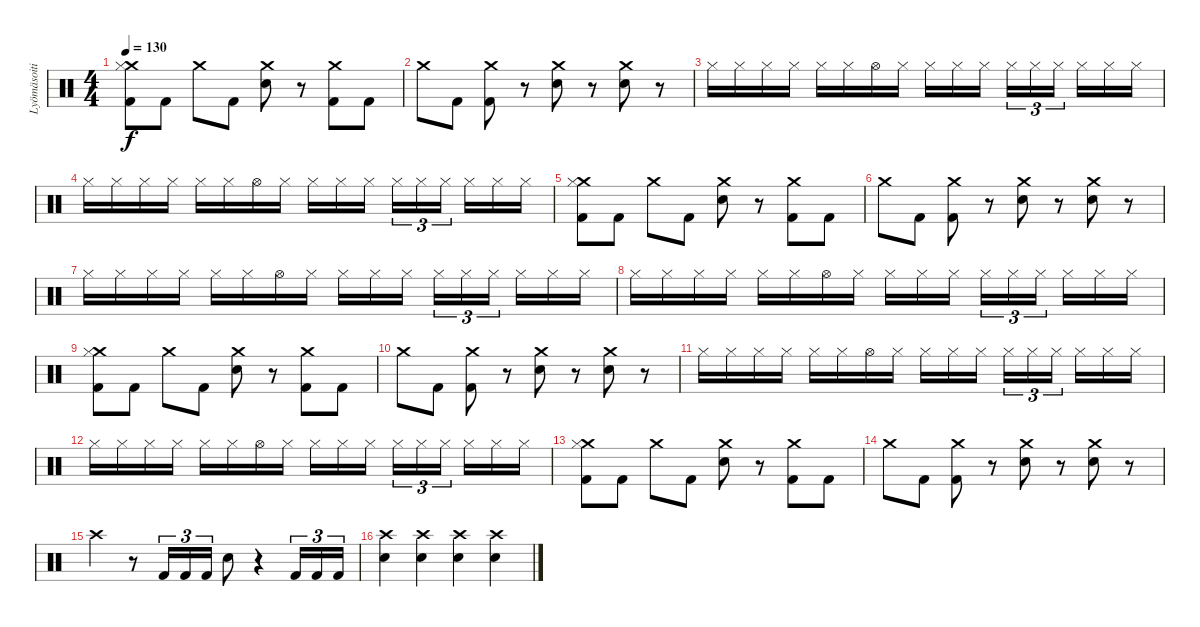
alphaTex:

\track ("Lyömäsoitin" "Lyömäsoiti") {instrument percussion}
\staff {score}
\articulation defaults
\ts (4 4)
\tempo 130
\clef neutral
\ks c
("Kick (hit) 2" "Crash medium (hit)" "Hi-Hat (closed)").8{dy f} "Kick (hit) 2".8 "Crash medium (hit)".8 "Kick (hit) 2".8 ("Crash medium (hit)" "Snare (hit) 2").8 r.8 ("Crash medium (hit)" "Kick (hit) 2").8 "Kick (hit) 2".8 |
"Crash medium (hit)".8 "Kick (hit) 2".8 ("Kick (hit) 2" "Crash medium (hit)").8 r.8 ("Crash medium (hit)" "Snare (hit) 2").8 r.8 ("Crash medium (hit)" "Snare (hit) 2").8 r.8 |
"Hi-Hat (closed)".16 "Hi-Hat (closed)".16 "Hi-Hat (closed)".16 "Hi-Hat (closed)".16 "Hi-Hat (closed)".16 "Hi-Hat (closed)".16 "Hi-Hat (open)".16 "Hi-Hat (closed)".16 "Hi-Hat (closed)".16 "Hi-Hat (closed)".16 "Hi-Hat (closed)".16{beam splitsecondary} "Hi-Hat (closed)".16{tu (3 2)} "Hi-Hat (closed)".16{tu (3 2)} "Hi-Hat (closed)".16{tu (3 2) beam splitsecondary} "Hi-Hat (closed)".16 "Hi-Hat (closed)".16 "Hi-Hat (closed)".16 |
"Hi-Hat (closed)".16 "Hi-Hat (closed)".16 "Hi-Hat (closed)".16 "Hi-Hat (closed)".16 "Hi-Hat (closed)".16 "Hi-Hat (closed)".16 "Hi-Hat (open)".16 "Hi-Hat (closed)".16 "Hi-Hat (closed)".16 "Hi-Hat (closed)".16 "Hi-Hat (closed)".16{beam splitsecondary} "Hi-Hat (closed)".16{tu (3 2)} "Hi-Hat (closed)".16{tu (3 2)} "Hi-Hat (closed)".16{tu (3 2) beam splitsecondary} "Hi-Hat (closed)".16 "Hi-Hat (closed)".16 "Hi-Hat (closed)".16 |
("Kick (hit) 2" "Crash medium (hit)" "Hi-Hat (closed)").8 "Kick (hit) 2".8 "Crash medium (hit)".8 "Kick (hit) 2".8 ("Crash medium (hit)" "Snare (hit) 2").8 r.8 ("Crash medium (hit)" "Kick (hit) 2").8 "Kick (hit) 2".8 |
"Crash medium (hit)".8 "Kick (hit) 2".8 ("Kick (hit) 2" "Crash medium (hit)").8 r.8 ("Crash medium (hit)" "Snare (hit) 2").8 r.8 ("Crash medium (hit)" "Snare (hit) 2").8 r.8 |
"Hi-Hat (closed)".16 "Hi-Hat (closed)".16 "Hi-Hat (closed)".16 "Hi-Hat (closed)".16 "Hi-Hat (closed)".16 "Hi-Hat (closed)".16 "Hi-Hat (open)".16 "Hi-Hat (closed)".16 "Hi-Hat (closed)".16 "Hi-Hat (closed)".16 "Hi-Hat (closed)".16{beam splitsecondary} "Hi-Hat (closed)".16{tu (3 2)} "Hi-Hat (closed)".16{tu (3 2)} "Hi-Hat (closed)".16{tu (3 2) beam splitsecondary} "Hi-Hat (closed)".16 "Hi-Hat (closed)".16 "Hi-Hat (closed)".16 |
"Hi-Hat (closed)".16 "Hi-Hat (closed)".16 "Hi-Hat (closed)".16 "Hi-Hat (closed)".16 "Hi-Hat (closed)".16 "Hi-Hat (closed)".16 "Hi-Hat (open)".16 "Hi-Hat (closed)".16 "Hi-Hat (closed)".16 "Hi-Hat (closed)".16 "Hi-Hat (closed)".16{beam splitsecondary} "Hi-Hat (closed)".16{tu (3 2)} "Hi-Hat (closed)".16{tu (3 2)} "Hi-Hat (closed)".16{tu (3 2) beam splitsecondary} "Hi-Hat (closed)".16 "Hi-Hat (closed)".16 "Hi-Hat (closed)".16 |
("Kick (hit) 2" "Crash medium (hit)" "Hi-Hat (closed)").8 "Kick (hit) 2".8 "Crash medium (hit)".8 "Kick (hit) 2".8 ("Crash medium (hit)" "Snare (hit) 2").8 r.8 ("Crash medium (hit)" "Kick (hit) 2").8 "Kick (hit) 2".8 |
"Crash medium (hit)".8 "Kick (hit) 2".8 ("Kick (hit) 2" "Crash medium (hit)").8 r.8 ("Crash medium (hit)" "Snare (hit) 2").8 r.8 ("Crash medium (hit)" "Snare (hit) 2").8 r.8 |
"Hi-Hat (closed)".16 "Hi-Hat (closed)".16 "Hi-Hat (closed)".16 "Hi-Hat (closed)".16 "Hi-Hat (closed)".16 "Hi-Hat (closed)".16 "Hi-Hat (open)".16 "Hi-Hat (closed)".16 "Hi-Hat (closed)".16 "Hi-Hat (closed)".16 "Hi-Hat (closed)".16{beam splitsecondary} "Hi-Hat (closed)".16{tu (3 2)} "Hi-Hat (closed)".16{tu (3 2)} "Hi-Hat (closed)".16{tu (3 2) beam splitsecondary} "Hi-Hat (closed)".16 "Hi-Hat (closed)".16 "Hi-Hat (closed)".16 |
"Hi-Hat (closed)".16 "Hi-Hat (closed)".16 "Hi-Hat (closed)".16 "Hi-Hat (closed)".16 "Hi-Hat (closed)".16 "Hi-Hat (closed)".16 "Hi-Hat (open)".16 "Hi-Hat (closed)".16 "Hi-Hat (closed)".16 "Hi-Hat (closed)".16 "Hi-Hat (closed)".16{beam splitsecondary} "Hi-Hat (closed)".16{tu (3 2)} "Hi-Hat (closed)".16{tu (3 2)} "Hi-Hat (closed)".16{tu (3 2) beam splitsecondary} "Hi-Hat (closed)".16 "Hi-Hat (closed)".16 "Hi-Hat (closed)".16 |
("Kick (hit) 2" "Crash medium (hit)" "Hi-Hat (closed)").8 "Kick (hit) 2".8 "Crash medium (hit)".8 "Kick (hit) 2".8 ("Crash medium (hit)" "Snare (hit) 2").8 r.8 ("Crash medium (hit)" "Kick (hit) 2").8 "Kick (hit) 2".8 |
"Crash medium (hit)".8 "Kick (hit) 2".8 ("Kick (hit) 2" "Crash medium (hit)").8 r.8 ("Crash medium (hit)" "Snare (hit) 2").8 r.8 ("Crash medium (hit)" "Snare (hit) 2").8 r.8 |
"Crash high (hit)".4 r.8 "Kick (hit) 2".16{tu (3 2)} "Kick (hit) 2".16{tu (3 2)} "Kick (hit) 2".16{tu (3 2)} "Snare (hit) 2".8 r.4 "Kick (hit) 2".16{tu (3 2)} "Kick (hit) 2".16{tu (3 2)} "Kick (hit) 2".16{tu (3 2)} |
("Snare (hit) 2" "Crash high (hit)").4 ("Snare (hit) 2" "Crash high (hit)").4 ("Snare (hit) 2" "Crash high (hit)").4 ("Snare (hit) 2" "Crash high (hit)").4
